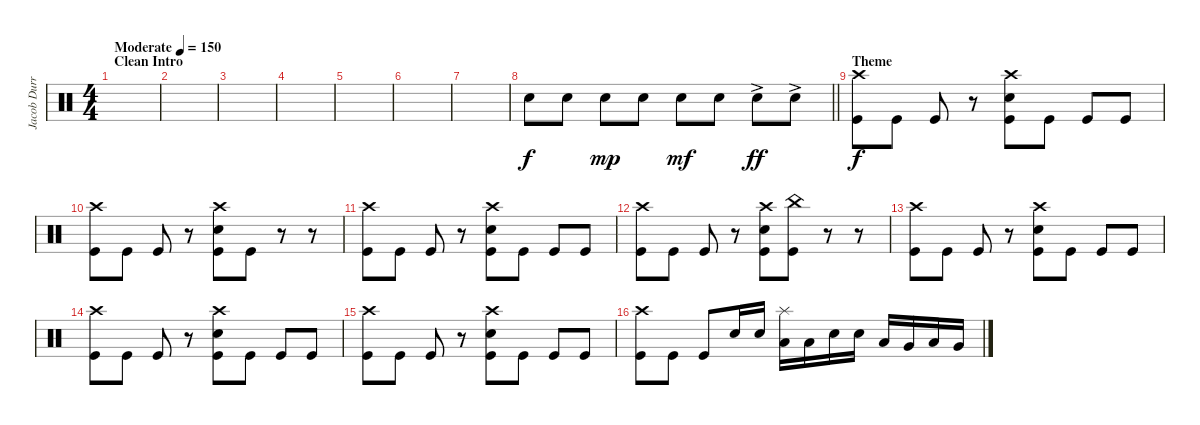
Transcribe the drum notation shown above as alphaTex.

\track ("Jacob Durret" "Jacob Durr") {instrument percussion}
\staff {score}
\articulation defaults
\ts (4 4)
\section ("" "Clean Intro")
\tempo (150 "Moderate")
\clef neutral
\ks c
|
|
|
|
|
|
|
\barLineRight lightlight "Snare (hit) 2".8 "Snare (hit) 2".8 "Snare (hit) 2".8{dy mp} "Snare (hit) 2".8 "Snare (hit) 2".8{dy mf} "Snare (hit) 2".8 "Snare (hit) 2"{ac}.8{dy ff} "Snare (hit) 2"{ac}.8
|
\section ("" "Theme")
("Kick (hit)" "Crash high (hit)").8{dy f} "Kick (hit)".8 "Kick (hit)".8 r.8 ("Kick (hit)" "Crash high (hit)" "Snare (hit) 2").8 "Kick (hit)".8 "Kick (hit)".8 "Kick (hit)".8 |
("Kick (hit)" "Crash high (hit)").8 "Kick (hit)".8 "Kick (hit)".8 r.8 ("Kick (hit)" "Crash high (hit)" "Snare (hit) 2").8 "Kick (hit)".8 r.8 r.8 |
("Kick (hit)" "Crash high (hit)").8 "Kick (hit)".8 "Kick (hit)".8 r.8 ("Kick (hit)" "Crash high (hit)" "Snare (hit) 2").8 "Kick (hit)".8 "Kick (hit)".8 "Kick (hit)".8 |
("Kick (hit)" "Crash high (hit)").8 "Kick (hit)".8 "Kick (hit)".8 r.8 ("Kick (hit)" "Crash high (hit)" "Snare (hit) 2").8 ("Kick (hit)" "China (hit)").8 r.8 r.8 |
("Kick (hit)" "Crash high (hit)").8 "Kick (hit)".8 "Kick (hit)".8 r.8 ("Kick (hit)" "Crash high (hit)" "Snare (hit) 2").8 "Kick (hit)".8 "Kick (hit)".8 "Kick (hit)".8 |
("Kick (hit)" "Crash high (hit)").8 "Kick (hit)".8 "Kick (hit)".8 r.8 ("Kick (hit)" "Crash high (hit)" "Snare (hit) 2").8 "Kick (hit)".8 "Kick (hit)".8 "Kick (hit)".8 |
("Kick (hit)" "Crash high (hit)").8 "Kick (hit)".8 "Kick (hit)".8 r.8 ("Kick (hit)" "Crash high (hit)" "Snare (hit) 2").8 "Kick (hit)".8 "Kick (hit)".8 "Kick (hit)".8 |
("Kick (hit)" "Crash high (hit)").8 "Kick (hit)".8 "Kick (hit)".8 "Snare (hit) 2".16 "Snare (hit) 2".16 ("Low Tom (hit)" "Splash (hit)").16 "Low Tom (hit)".16 "Snare (hit) 2".16 "Snare (hit) 2".16 "Low Tom (hit)".16 "Very Low Tom (hit)".16 "Low Tom (hit)".16 "Very Low Tom (hit)".16
